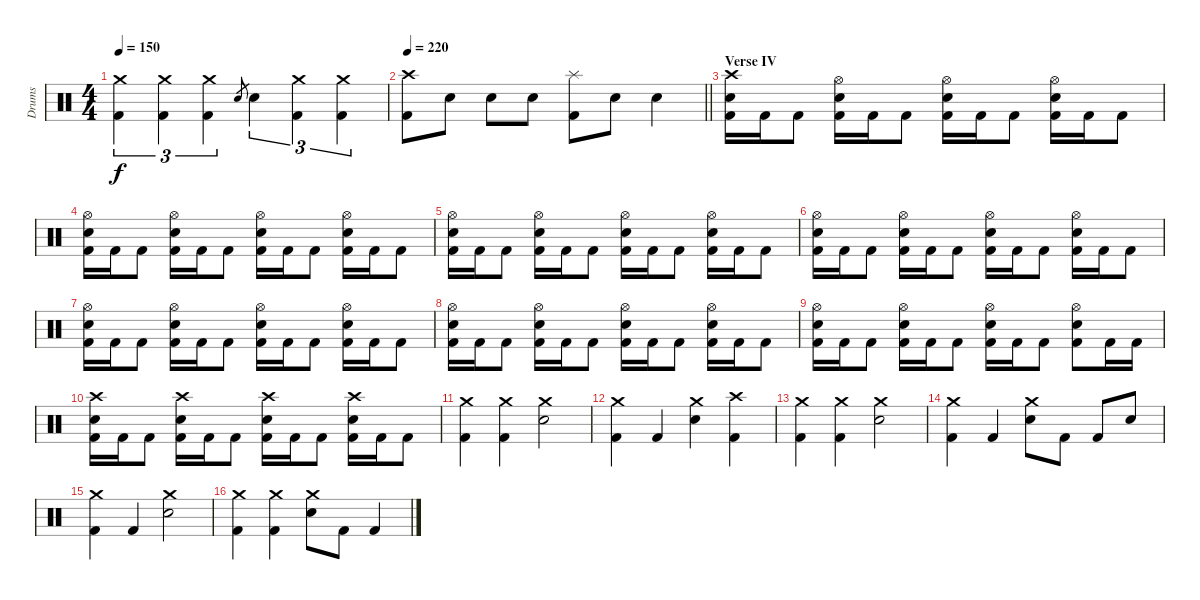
\track ("Drums" "Drums") {instrument percussion}
\staff {score}
\articulation defaults
\ts (4 4)
\tempo 150
\clef neutral
\ks c
("Crash medium (hit)" "Kick (hit) 2").4{tu (3 2) dy f} ("Crash medium (hit)" "Kick (hit) 2").4{tu (3 2)} ("Crash medium (hit)" "Kick (hit) 2").4{tu (3 2)} "Snare (hit) 2".8{gr} "Snare (hit) 2".4{tu (3 2)} ("Crash medium (hit)" "Kick (hit) 2").4{tu (3 2)} ("Crash medium (hit)" "Kick (hit) 2").4{tu (3 2)} |
\tempo 220
\barLineRight lightlight
("Crash high (hit)" "Kick (hit) 2").8 "Snare (hit) 2".8 "Snare (hit) 2".8 "Snare (hit) 2".8 ("Splash (hit)" "Kick (hit) 2").8 "Snare (hit) 2".8 "Snare (hit) 2".4 |
\section ("" "Verse IV")
("Crash high (hit)" "Snare (hit) 2" "Kick (hit) 2").16 "Kick (hit) 2".16 "Kick (hit) 2".8 ("Hi-Hat (open)" "Snare (hit) 2" "Kick (hit) 2").16 "Kick (hit) 2".16 "Kick (hit) 2".8 ("Hi-Hat (open)" "Snare (hit) 2" "Kick (hit) 2").16 "Kick (hit) 2".16 "Kick (hit) 2".8 ("Hi-Hat (open)" "Snare (hit) 2" "Kick (hit) 2").16 "Kick (hit) 2".16 "Kick (hit) 2".8 |
("Hi-Hat (open)" "Snare (hit) 2" "Kick (hit) 2").16 "Kick (hit) 2".16 "Kick (hit) 2".8 ("Hi-Hat (open)" "Snare (hit) 2" "Kick (hit) 2").16 "Kick (hit) 2".16 "Kick (hit) 2".8 ("Hi-Hat (open)" "Snare (hit) 2" "Kick (hit) 2").16 "Kick (hit) 2".16 "Kick (hit) 2".8 ("Hi-Hat (open)" "Snare (hit) 2" "Kick (hit) 2").16 "Kick (hit) 2".16 "Kick (hit) 2".8 |
("Hi-Hat (open)" "Snare (hit) 2" "Kick (hit) 2").16 "Kick (hit) 2".16 "Kick (hit) 2".8 ("Hi-Hat (open)" "Snare (hit) 2" "Kick (hit) 2").16 "Kick (hit) 2".16 "Kick (hit) 2".8 ("Hi-Hat (open)" "Snare (hit) 2" "Kick (hit) 2").16 "Kick (hit) 2".16 "Kick (hit) 2".8 ("Hi-Hat (open)" "Snare (hit) 2" "Kick (hit) 2").16 "Kick (hit) 2".16 "Kick (hit) 2".8 |
("Hi-Hat (open)" "Snare (hit) 2" "Kick (hit) 2").16 "Kick (hit) 2".16 "Kick (hit) 2".8 ("Hi-Hat (open)" "Snare (hit) 2" "Kick (hit) 2").16 "Kick (hit) 2".16 "Kick (hit) 2".8 ("Hi-Hat (open)" "Snare (hit) 2" "Kick (hit) 2").16 "Kick (hit) 2".16 "Kick (hit) 2".8 ("Hi-Hat (open)" "Snare (hit) 2" "Kick (hit) 2").16 "Kick (hit) 2".16 "Kick (hit) 2".8 |
("Hi-Hat (open)" "Snare (hit) 2" "Kick (hit) 2").16 "Kick (hit) 2".16 "Kick (hit) 2".8 ("Hi-Hat (open)" "Snare (hit) 2" "Kick (hit) 2").16 "Kick (hit) 2".16 "Kick (hit) 2".8 ("Hi-Hat (open)" "Snare (hit) 2" "Kick (hit) 2").16 "Kick (hit) 2".16 "Kick (hit) 2".8 ("Hi-Hat (open)" "Snare (hit) 2" "Kick (hit) 2").16 "Kick (hit) 2".16 "Kick (hit) 2".8 |
("Hi-Hat (open)" "Snare (hit) 2" "Kick (hit) 2").16 "Kick (hit) 2".16 "Kick (hit) 2".8 ("Hi-Hat (open)" "Snare (hit) 2" "Kick (hit) 2").16 "Kick (hit) 2".16 "Kick (hit) 2".8 ("Hi-Hat (open)" "Snare (hit) 2" "Kick (hit) 2").16 "Kick (hit) 2".16 "Kick (hit) 2".8 ("Hi-Hat (open)" "Snare (hit) 2" "Kick (hit) 2").16 "Kick (hit) 2".16 "Kick (hit) 2".8 |
("Hi-Hat (open)" "Snare (hit) 2" "Kick (hit) 2").16 "Kick (hit) 2".16 "Kick (hit) 2".8 ("Hi-Hat (open)" "Snare (hit) 2" "Kick (hit) 2").16 "Kick (hit) 2".16 "Kick (hit) 2".8 ("Hi-Hat (open)" "Snare (hit) 2" "Kick (hit) 2").16 "Kick (hit) 2".16 "Kick (hit) 2".8 ("Hi-Hat (open)" "Snare (hit) 2" "Kick (hit) 2").8 "Kick (hit) 2".16 "Kick (hit) 2".16 |
("Crash high (hit)" "Snare (hit) 2" "Kick (hit) 2").16 "Kick (hit) 2".16 "Kick (hit) 2".8 ("Crash high (hit)" "Snare (hit) 2" "Kick (hit) 2").16 "Kick (hit) 2".16 "Kick (hit) 2".8 ("Crash high (hit)" "Snare (hit) 2" "Kick (hit) 2").16 "Kick (hit) 2".16 "Kick (hit) 2".8 ("Crash high (hit)" "Snare (hit) 2" "Kick (hit) 2").16 "Kick (hit) 2".16 "Kick (hit) 2".8 |
("Crash medium (hit)" "Kick (hit) 2").4 ("Crash medium (hit)" "Kick (hit) 2").4 ("Crash medium (hit)" "Snare (hit) 2").2 |
("Crash medium (hit)" "Kick (hit) 2").4 "Kick (hit) 2".4 ("Crash medium (hit)" "Snare (hit) 2").4 ("Crash high (hit)" "Kick (hit) 2").4 |
("Crash medium (hit)" "Kick (hit) 2").4 ("Crash medium (hit)" "Kick (hit) 2").4 ("Crash medium (hit)" "Snare (hit) 2").2 |
("Crash medium (hit)" "Kick (hit) 2").4 "Kick (hit) 2".4 ("Crash medium (hit)" "Snare (hit) 2").8 "Kick (hit) 2".8 "Kick (hit) 2".8 "Snare (hit) 2".8 |
("Crash medium (hit)" "Kick (hit) 2").4 "Kick (hit) 2".4 ("Crash medium (hit)" "Snare (hit) 2").2 |
("Crash medium (hit)" "Kick (hit) 2").4 ("Crash medium (hit)" "Kick (hit) 2").4 ("Crash medium (hit)" "Snare (hit) 2").8 "Kick (hit) 2".8 "Kick (hit) 2".4
